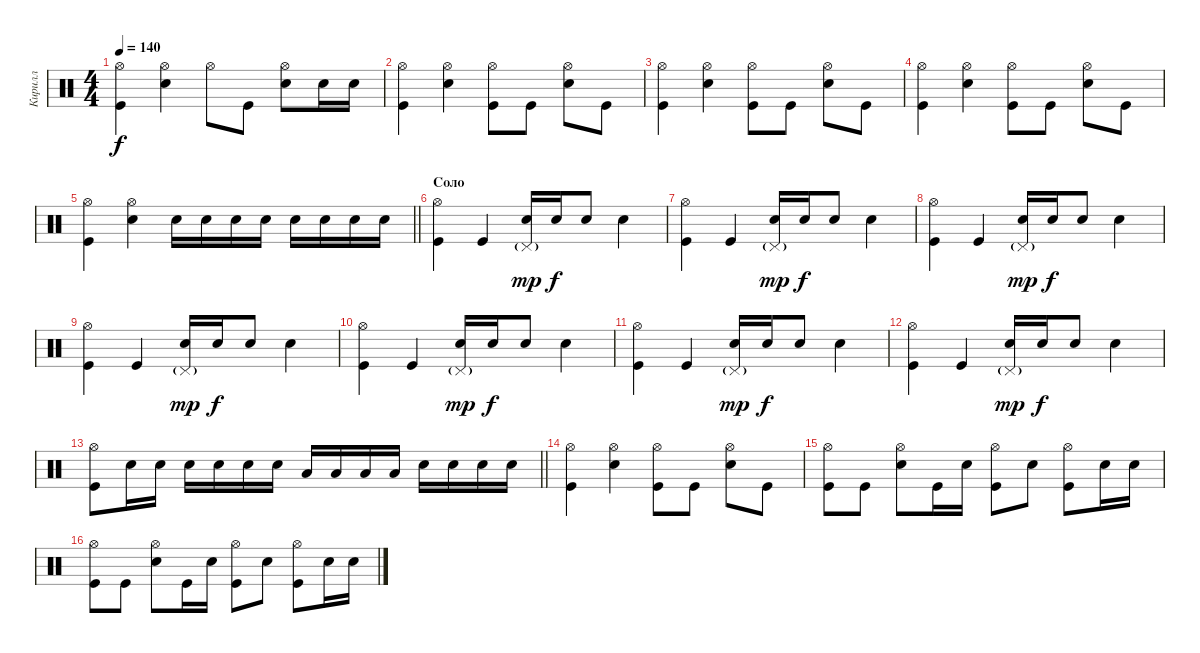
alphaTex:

\track ("Кирилл" "Кирилл") {instrument percussion}
\staff {score}
\articulation defaults
\ts (4 4)
\tempo 140
\clef neutral
\ks c
("Hi-Hat (open)" "Kick (hit)").4{dy f} ("Hi-Hat (open)" "Snare (hit) 2").4 "Hi-Hat (open)".8 "Kick (hit)".8 ("Hi-Hat (open)" "Snare (hit) 2").8 "Snare (hit) 2".16 "Snare (hit) 2".16 |
("Hi-Hat (open)" "Kick (hit)").4 ("Hi-Hat (open)" "Snare (hit) 2").4 ("Hi-Hat (open)" "Kick (hit)").8 "Kick (hit)".8 ("Hi-Hat (open)" "Snare (hit) 2").8 "Kick (hit)".8 |
("Hi-Hat (open)" "Kick (hit)").4 ("Hi-Hat (open)" "Snare (hit) 2").4 ("Hi-Hat (open)" "Kick (hit)").8 "Kick (hit)".8 ("Hi-Hat (open)" "Snare (hit) 2").8 "Kick (hit)".8 |
("Hi-Hat (open)" "Kick (hit)").4 ("Hi-Hat (open)" "Snare (hit) 2").4 ("Hi-Hat (open)" "Kick (hit)").8 "Kick (hit)".8 ("Hi-Hat (open)" "Snare (hit) 2").8 "Kick (hit)".8 |
\barLineRight lightlight
("Hi-Hat (open)" "Kick (hit)").4 ("Hi-Hat (open)" "Snare (hit) 2").4 "Snare (hit) 2".16 "Snare (hit) 2".16 "Snare (hit) 2".16 "Snare (hit) 2".16 "Snare (hit) 2".16 "Snare (hit) 2".16 "Snare (hit) 2".16 "Snare (hit) 2".16 |
\section ("" "Соло")
("Hi-Hat (open)" "Kick (hit)").4 "Kick (hit)".4 ("Pedal Hi-Hat (hit)"{g} "Snare (hit) 2").16{dy mp} "Snare (hit) 2".16{dy f} "Snare (hit) 2".8 "Snare (hit) 2".4 |
("Hi-Hat (open)" "Kick (hit)").4 "Kick (hit)".4 ("Pedal Hi-Hat (hit)"{g} "Snare (hit) 2").16{dy mp} "Snare (hit) 2".16{dy f} "Snare (hit) 2".8 "Snare (hit) 2".4 |
("Hi-Hat (open)" "Kick (hit)").4 "Kick (hit)".4 ("Pedal Hi-Hat (hit)"{g} "Snare (hit) 2").16{dy mp} "Snare (hit) 2".16{dy f} "Snare (hit) 2".8 "Snare (hit) 2".4 |
("Hi-Hat (open)" "Kick (hit)").4 "Kick (hit)".4 ("Pedal Hi-Hat (hit)"{g} "Snare (hit) 2").16{dy mp} "Snare (hit) 2".16{dy f} "Snare (hit) 2".8 "Snare (hit) 2".4 |
("Hi-Hat (open)" "Kick (hit)").4 "Kick (hit)".4 ("Pedal Hi-Hat (hit)"{g} "Snare (hit) 2").16{dy mp} "Snare (hit) 2".16{dy f} "Snare (hit) 2".8 "Snare (hit) 2".4 |
("Hi-Hat (open)" "Kick (hit)").4 "Kick (hit)".4 ("Pedal Hi-Hat (hit)"{g} "Snare (hit) 2").16{dy mp} "Snare (hit) 2".16{dy f} "Snare (hit) 2".8 "Snare (hit) 2".4 |
("Hi-Hat (open)" "Kick (hit)").4 "Kick (hit)".4 ("Pedal Hi-Hat (hit)"{g} "Snare (hit) 2").16{dy mp} "Snare (hit) 2".16{dy f} "Snare (hit) 2".8 "Snare (hit) 2".4 |
\barLineRight lightlight
("Hi-Hat (open)" "Kick (hit)").8 "Snare (hit) 2".16 "Snare (hit) 2".16 "Snare (hit) 2".16 "Snare (hit) 2".16 "Snare (hit) 2".16 "Snare (hit) 2".16 "Low Tom (hit)".16 "Low Tom (hit)".16 "Low Tom (hit)".16 "Low Tom (hit)".16 "Snare (hit) 2".16 "Snare (hit) 2".16 "Snare (hit) 2".16 "Snare (hit) 2".16 |
("Hi-Hat (open)" "Kick (hit)").4 ("Hi-Hat (open)" "Snare (hit) 2").4 ("Hi-Hat (open)" "Kick (hit)").8 "Kick (hit)".8 ("Hi-Hat (open)" "Snare (hit) 2").8 "Kick (hit)".8 |
("Hi-Hat (open)" "Kick (hit)").8 "Kick (hit)".8 ("Hi-Hat (open)" "Snare (hit) 2").8 "Kick (hit)".16 "Snare (hit) 2".16 ("Hi-Hat (open)" "Kick (hit)").8 "Snare (hit) 2".8 ("Hi-Hat (open)" "Kick (hit)").8 "Snare (hit) 2".16 "Snare (hit) 2".16 |
("Hi-Hat (open)" "Kick (hit)").8 "Kick (hit)".8 ("Hi-Hat (open)" "Snare (hit) 2").8 "Kick (hit)".16 "Snare (hit) 2".16 ("Hi-Hat (open)" "Kick (hit)").8 "Snare (hit) 2".8 ("Hi-Hat (open)" "Kick (hit)").8 "Snare (hit) 2".16 "Snare (hit) 2".16
